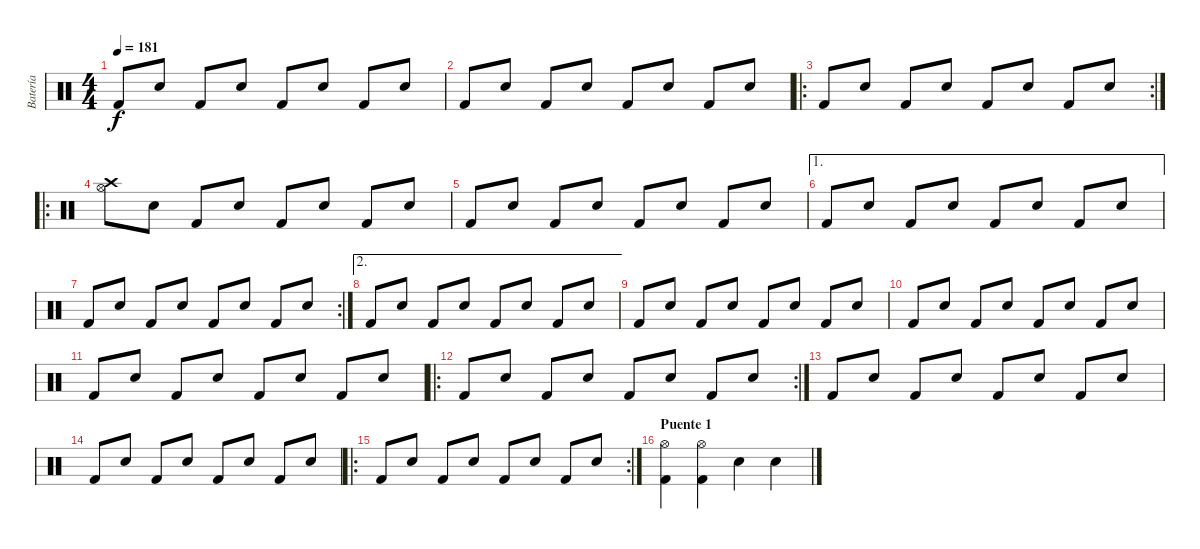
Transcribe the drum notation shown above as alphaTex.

\track ("Batería" "Batería") {instrument percussion}
\staff {score}
\articulation defaults
\ts (4 4)
\tempo 181
\clef neutral
\ks c "Kick (hit) 2".8{dy f} "Electric Snare (hit)".8 "Kick (hit) 2".8 "Electric Snare (hit)".8 "Kick (hit) 2".8 "Electric Snare (hit)".8 "Kick (hit) 2".8 "Electric Snare (hit)".8
|
"Kick (hit) 2".8 "Electric Snare (hit)".8 "Kick (hit) 2".8 "Electric Snare (hit)".8 "Kick (hit) 2".8 "Electric Snare (hit)".8 "Kick (hit) 2".8 "Electric Snare (hit)".8 |
\ro
\rc 2 "Kick (hit) 2".8 "Electric Snare (hit)".8 "Kick (hit) 2".8 "Electric Snare (hit)".8 "Kick (hit) 2".8 "Electric Snare (hit)".8 "Kick (hit) 2".8 "Electric Snare (hit)".8
|
\ro
("Crash high (hit)" "Hi-Hat (open)").8 "Electric Snare (hit)".8 "Kick (hit) 2".8 "Electric Snare (hit)".8 "Kick (hit) 2".8 "Electric Snare (hit)".8 "Kick (hit) 2".8 "Electric Snare (hit)".8 |
"Kick (hit) 2".8 "Electric Snare (hit)".8 "Kick (hit) 2".8 "Electric Snare (hit)".8 "Kick (hit) 2".8 "Electric Snare (hit)".8 "Kick (hit) 2".8 "Electric Snare (hit)".8 |
\ae 1 "Kick (hit) 2".8 "Electric Snare (hit)".8 "Kick (hit) 2".8 "Electric Snare (hit)".8 "Kick (hit) 2".8 "Electric Snare (hit)".8 "Kick (hit) 2".8 "Electric Snare (hit)".8
|
\rc 2 "Kick (hit) 2".8 "Electric Snare (hit)".8 "Kick (hit) 2".8 "Electric Snare (hit)".8 "Kick (hit) 2".8 "Electric Snare (hit)".8 "Kick (hit) 2".8 "Electric Snare (hit)".8
|
\ae 2 "Kick (hit) 2".8 "Electric Snare (hit)".8 "Kick (hit) 2".8 "Electric Snare (hit)".8 "Kick (hit) 2".8 "Electric Snare (hit)".8 "Kick (hit) 2".8 "Electric Snare (hit)".8
|
"Kick (hit) 2".8 "Electric Snare (hit)".8 "Kick (hit) 2".8 "Electric Snare (hit)".8 "Kick (hit) 2".8 "Electric Snare (hit)".8 "Kick (hit) 2".8 "Electric Snare (hit)".8 |
"Kick (hit) 2".8 "Electric Snare (hit)".8 "Kick (hit) 2".8 "Electric Snare (hit)".8 "Kick (hit) 2".8 "Electric Snare (hit)".8 "Kick (hit) 2".8 "Electric Snare (hit)".8 |
"Kick (hit) 2".8 "Electric Snare (hit)".8 "Kick (hit) 2".8 "Electric Snare (hit)".8 "Kick (hit) 2".8 "Electric Snare (hit)".8 "Kick (hit) 2".8 "Electric Snare (hit)".8 |
\ro
\rc 2 "Kick (hit) 2".8 "Electric Snare (hit)".8 "Kick (hit) 2".8 "Electric Snare (hit)".8 "Kick (hit) 2".8 "Electric Snare (hit)".8 "Kick (hit) 2".8 "Electric Snare (hit)".8
|
"Kick (hit) 2".8 "Electric Snare (hit)".8 "Kick (hit) 2".8 "Electric Snare (hit)".8 "Kick (hit) 2".8 "Electric Snare (hit)".8 "Kick (hit) 2".8 "Electric Snare (hit)".8 |
"Kick (hit) 2".8 "Electric Snare (hit)".8 "Kick (hit) 2".8 "Electric Snare (hit)".8 "Kick (hit) 2".8 "Electric Snare (hit)".8 "Kick (hit) 2".8 "Electric Snare (hit)".8 |
\ro
\rc 2 "Kick (hit) 2".8 "Electric Snare (hit)".8 "Kick (hit) 2".8 "Electric Snare (hit)".8 "Kick (hit) 2".8 "Electric Snare (hit)".8 "Kick (hit) 2".8 "Electric Snare (hit)".8
|
\section ("" "Puente 1")
("Hi-Hat (open)" "Kick (hit) 2").4 ("Hi-Hat (open)" "Kick (hit) 2").4 "Snare (hit) 2".4 "Snare (hit) 2".4
